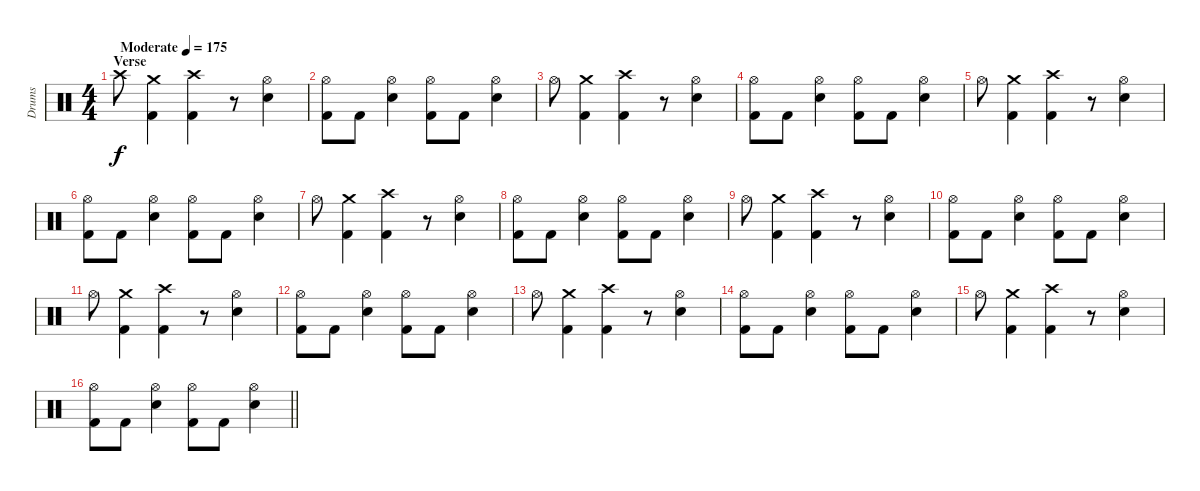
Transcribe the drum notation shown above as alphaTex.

\track ("Drums" "Drums") {instrument percussion}
\staff {score}
\articulation defaults
\ts (4 4)
\section ("" "Verse")
\tempo (175 "Moderate")
\clef neutral
\ks c "Crash high (hit)".8{dy f}
("Crash medium (hit)" "Kick (hit) 2").4 ("Crash high (hit)" "Kick (hit) 2").4 r.8 ("Hi-Hat (open)" "Electric Snare (hit)").4 |
("Hi-Hat (open)" "Kick (hit) 2").8 "Kick (hit) 2".8 ("Hi-Hat (open)" "Electric Snare (hit)").4 ("Hi-Hat (open)" "Kick (hit) 2").8 "Kick (hit) 2".8 ("Hi-Hat (open)" "Electric Snare (hit)").4 |
"Hi-Hat (open)".8 ("Crash medium (hit)" "Kick (hit) 2").4 ("Crash high (hit)" "Kick (hit) 2").4 r.8 ("Hi-Hat (open)" "Electric Snare (hit)").4 |
("Hi-Hat (open)" "Kick (hit) 2").8 "Kick (hit) 2".8 ("Hi-Hat (open)" "Electric Snare (hit)").4 ("Hi-Hat (open)" "Kick (hit) 2").8 "Kick (hit) 2".8 ("Hi-Hat (open)" "Electric Snare (hit)").4 |
"Hi-Hat (open)".8 ("Crash medium (hit)" "Kick (hit) 2").4 ("Crash high (hit)" "Kick (hit) 2").4 r.8 ("Hi-Hat (open)" "Electric Snare (hit)").4 |
("Hi-Hat (open)" "Kick (hit) 2").8 "Kick (hit) 2".8 ("Hi-Hat (open)" "Electric Snare (hit)").4 ("Hi-Hat (open)" "Kick (hit) 2").8 "Kick (hit) 2".8 ("Hi-Hat (open)" "Electric Snare (hit)").4 |
"Hi-Hat (open)".8 ("Crash medium (hit)" "Kick (hit) 2").4 ("Crash high (hit)" "Kick (hit) 2").4 r.8 ("Hi-Hat (open)" "Electric Snare (hit)").4 |
("Hi-Hat (open)" "Kick (hit) 2").8 "Kick (hit) 2".8 ("Hi-Hat (open)" "Electric Snare (hit)").4 ("Hi-Hat (open)" "Kick (hit) 2").8 "Kick (hit) 2".8 ("Hi-Hat (open)" "Electric Snare (hit)").4 |
"Hi-Hat (open)".8 ("Crash medium (hit)" "Kick (hit) 2").4 ("Crash high (hit)" "Kick (hit) 2").4 r.8 ("Hi-Hat (open)" "Electric Snare (hit)").4 |
("Hi-Hat (open)" "Kick (hit) 2").8 "Kick (hit) 2".8 ("Hi-Hat (open)" "Electric Snare (hit)").4 ("Hi-Hat (open)" "Kick (hit) 2").8 "Kick (hit) 2".8 ("Hi-Hat (open)" "Electric Snare (hit)").4 |
"Hi-Hat (open)".8 ("Crash medium (hit)" "Kick (hit) 2").4 ("Crash high (hit)" "Kick (hit) 2").4 r.8 ("Hi-Hat (open)" "Electric Snare (hit)").4 |
("Hi-Hat (open)" "Kick (hit) 2").8 "Kick (hit) 2".8 ("Hi-Hat (open)" "Electric Snare (hit)").4 ("Hi-Hat (open)" "Kick (hit) 2").8 "Kick (hit) 2".8 ("Hi-Hat (open)" "Electric Snare (hit)").4 |
"Hi-Hat (open)".8 ("Crash medium (hit)" "Kick (hit) 2").4 ("Crash high (hit)" "Kick (hit) 2").4 r.8 ("Hi-Hat (open)" "Electric Snare (hit)").4 |
("Hi-Hat (open)" "Kick (hit) 2").8 "Kick (hit) 2".8 ("Hi-Hat (open)" "Electric Snare (hit)").4 ("Hi-Hat (open)" "Kick (hit) 2").8 "Kick (hit) 2".8 ("Hi-Hat (open)" "Electric Snare (hit)").4 |
"Hi-Hat (open)".8 ("Crash medium (hit)" "Kick (hit) 2").4 ("Crash high (hit)" "Kick (hit) 2").4 r.8 ("Hi-Hat (open)" "Electric Snare (hit)").4 |
\barLineRight lightlight
("Hi-Hat (open)" "Kick (hit) 2").8 "Kick (hit) 2".8 ("Hi-Hat (open)" "Electric Snare (hit)").4 ("Hi-Hat (open)" "Kick (hit) 2").8 "Kick (hit) 2".8 ("Hi-Hat (open)" "Electric Snare (hit)").4
